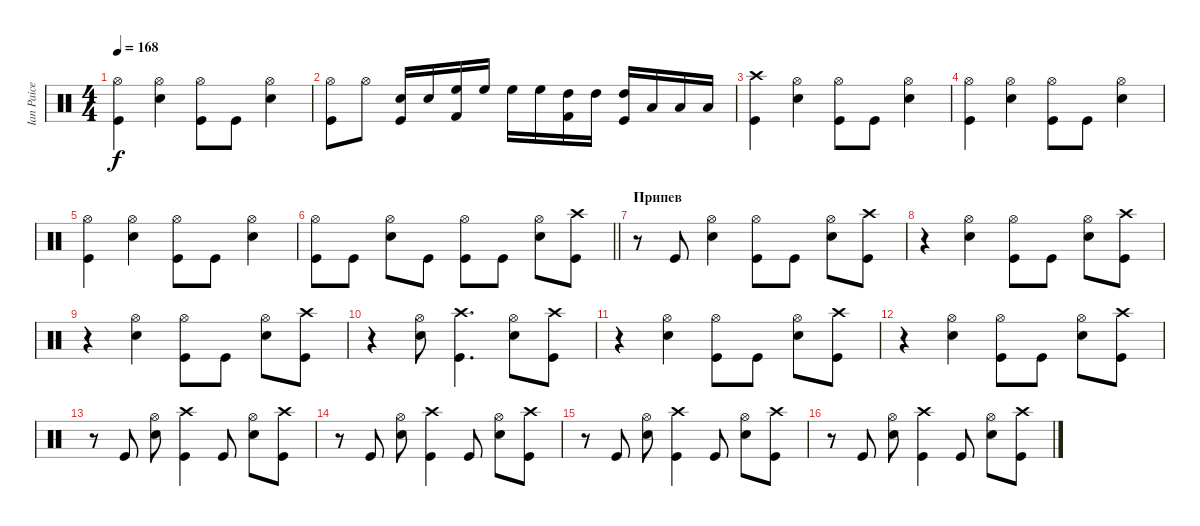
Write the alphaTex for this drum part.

\track ("Ian Paice" "Ian Paice") {instrument percussion}
\staff {score}
\articulation defaults
\ts (4 4)
\tempo 168
\clef neutral
\ks c
("Hi-Hat (open)" "Kick (hit)").4{dy f} ("Hi-Hat (open)" "Snare (hit) 2").4 ("Kick (hit)" "Hi-Hat (open)").8 "Kick (hit)".8 ("Snare (hit) 2" "Hi-Hat (open)").4 |
("Hi-Hat (open)" "Kick (hit)").8 "Hi-Hat (open)".8 ("Electric Snare (hit)" "Kick (hit)").16 "Electric Snare (hit)".16 ("High Floor Tom (hit)" "Kick (hit) 2").16 "High Floor Tom (hit)".16 "High Floor Tom (hit)".16 "High Floor Tom (hit)".16 ("High Tom (hit)" "Kick (hit) 2").16 "High Tom (hit)".16 ("Kick (hit)" "High Tom (hit)").16 "Low Tom (hit)".16 "Low Tom (hit)".16 "Low Floor Tom (hit)".16 |
("Crash high (hit)" "Kick (hit)").4 ("Snare (hit) 2" "Hi-Hat (open)").4 ("Hi-Hat (open)" "Kick (hit)").8 "Kick (hit)".8 ("Snare (hit) 2" "Hi-Hat (open)").4 |
("Kick (hit)" "Hi-Hat (open)").4 ("Snare (hit) 2" "Hi-Hat (open)").4 ("Hi-Hat (open)" "Kick (hit)").8 "Kick (hit)".8 ("Hi-Hat (open)" "Snare (hit) 2").4 |
("Kick (hit)" "Hi-Hat (open)").4 ("Snare (hit) 2" "Hi-Hat (open)").4 ("Hi-Hat (open)" "Kick (hit)").8 "Kick (hit)".8 ("Hi-Hat (open)" "Snare (hit) 2").4 |
\barLineRight lightlight
("Kick (hit)" "Hi-Hat (open)").8 "Kick (hit)".8 ("Snare (hit) 2" "Hi-Hat (open)").8 "Kick (hit)".8 ("Hi-Hat (open)" "Kick (hit)").8 "Kick (hit)".8 ("Snare (hit) 2" "Hi-Hat (open)").8 ("Crash high (hit)" "Kick (hit)").8 |
\section ("" "Припев")
r.8 "Kick (hit)".8 ("Hi-Hat (open)" "Snare (hit) 2").4 ("Hi-Hat (open)" "Kick (hit)").8 "Kick (hit)".8 ("Hi-Hat (open)" "Snare (hit) 2").8 ("Kick (hit)" "Crash high (hit)").8 |
r.4 ("Hi-Hat (open)" "Snare (hit) 2").4 ("Hi-Hat (open)" "Kick (hit)").8 "Kick (hit)".8 ("Hi-Hat (open)" "Snare (hit) 2").8 ("Kick (hit)" "Crash high (hit)").8 |
r.4 ("Hi-Hat (open)" "Snare (hit) 2").4 ("Hi-Hat (open)" "Kick (hit)").8 "Kick (hit)".8 ("Hi-Hat (open)" "Snare (hit) 2").8 ("Kick (hit)" "Crash high (hit)").8 |
r.4 ("Hi-Hat (open)" "Snare (hit) 2").8 ("Kick (hit)" "Crash high (hit)").4{d} ("Hi-Hat (open)" "Snare (hit) 2").8 ("Kick (hit)" "Crash high (hit)").8 |
r.4 ("Snare (hit) 2" "Hi-Hat (open)").4 ("Kick (hit)" "Hi-Hat (open)").8 "Kick (hit)".8 ("Hi-Hat (open)" "Snare (hit) 2").8 ("Crash high (hit)" "Kick (hit)").8 |
r.4 ("Snare (hit) 2" "Hi-Hat (open)").4 ("Kick (hit)" "Hi-Hat (open)").8 "Kick (hit)".8 ("Snare (hit) 2" "Hi-Hat (open)").8 ("Crash high (hit)" "Kick (hit)").8 |
r.8 "Kick (hit)".8 ("Hi-Hat (open)" "Snare (hit) 2").8 ("Kick (hit)" "Crash high (hit)").4 "Kick (hit)".8 ("Hi-Hat (open)" "Snare (hit) 2").8 ("Crash high (hit)" "Kick (hit)").8 |
r.8 "Kick (hit)".8 ("Snare (hit) 2" "Hi-Hat (open)").8 ("Kick (hit)" "Crash high (hit)").4 "Kick (hit)".8 ("Hi-Hat (open)" "Snare (hit) 2").8 ("Crash high (hit)" "Kick (hit)").8 |
r.8 "Kick (hit)".8 ("Hi-Hat (open)" "Snare (hit) 2").8 ("Crash high (hit)" "Kick (hit)").4 "Kick (hit)".8 ("Hi-Hat (open)" "Snare (hit) 2").8 ("Crash high (hit)" "Kick (hit)").8 |
r.8 "Kick (hit)".8 ("Snare (hit) 2" "Hi-Hat (open)").8 ("Crash high (hit)" "Kick (hit)").4 "Kick (hit)".8 ("Hi-Hat (open)" "Snare (hit) 2").8 ("Crash high (hit)" "Kick (hit)").8
